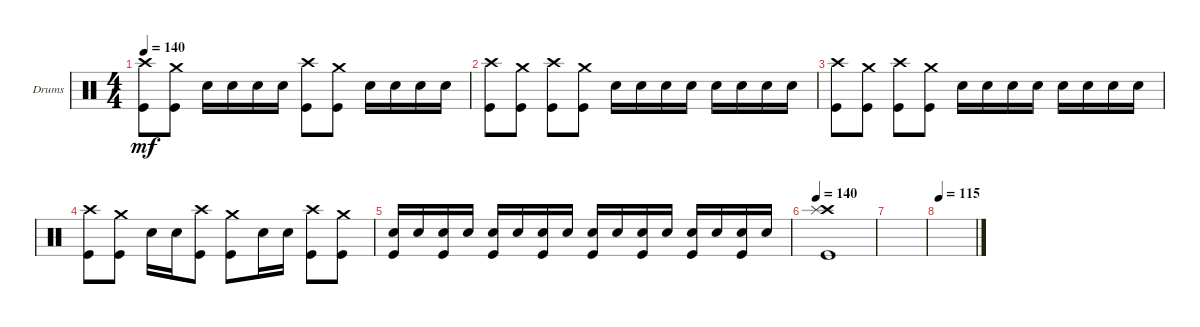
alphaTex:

\bracketExtendMode groupsimilarinstruments
\firstSystemTrackNameOrientation horizontal
\otherSystemsTrackNameOrientation horizontal
\track ("Drumkit" "Drums") {instrument percussion}
\staff {score}
\articulation defaults
\ts (4 4)
\tempo 140
\clef neutral
\ks c
("Kick (hit)" "Crash high (hit)").8{dy mf} ("Kick (hit)" "Crash medium (hit)").8 "Snare (hit) 2".16 "Snare (hit) 2".16 "Snare (hit) 2".16 "Snare (hit) 2".16 ("Kick (hit)" "Crash high (hit)").8 ("Kick (hit)" "Crash medium (hit)").8 "Snare (hit) 2".16 "Snare (hit) 2".16 "Snare (hit) 2".16 "Snare (hit) 2".16 |
("Kick (hit)" "Crash high (hit)").8 ("Kick (hit)" "Crash medium (hit)").8 ("Kick (hit)" "Crash high (hit)").8 ("Kick (hit)" "Crash medium (hit)").8 "Snare (hit) 2".16 "Snare (hit) 2".16 "Snare (hit) 2".16 "Snare (hit) 2".16 "Snare (hit) 2".16 "Snare (hit) 2".16 "Snare (hit) 2".16 "Snare (hit) 2".16 |
("Kick (hit)" "Crash high (hit)").8 ("Kick (hit)" "Crash medium (hit)").8 ("Kick (hit)" "Crash high (hit)").8 ("Kick (hit)" "Crash medium (hit)").8 "Snare (hit) 2".16 "Snare (hit) 2".16 "Snare (hit) 2".16 "Snare (hit) 2".16 "Snare (hit) 2".16 "Snare (hit) 2".16 "Snare (hit) 2".16 "Snare (hit) 2".16 |
("Kick (hit)" "Crash high (hit)").8 ("Kick (hit)" "Crash medium (hit)").8 "Snare (hit) 2".16 "Snare (hit) 2".16 ("Kick (hit)" "Crash high (hit)").8 ("Kick (hit)" "Crash medium (hit)").8 "Snare (hit) 2".16 "Snare (hit) 2".16 ("Kick (hit)" "Crash high (hit)").8 ("Kick (hit)" "Crash medium (hit)").8 |
("Snare (hit) 2" "Kick (hit)").16 "Snare (hit) 2".16 ("Snare (hit) 2" "Kick (hit)").16 "Snare (hit) 2".16 ("Snare (hit) 2" "Kick (hit)").16 "Snare (hit) 2".16 ("Snare (hit) 2" "Kick (hit)").16 "Snare (hit) 2".16 ("Snare (hit) 2" "Kick (hit)").16 "Snare (hit) 2".16 ("Snare (hit) 2" "Kick (hit)").16 "Snare (hit) 2".16 ("Snare (hit) 2" "Kick (hit)").16 "Snare (hit) 2".16 ("Snare (hit) 2" "Kick (hit)").16 "Snare (hit) 2".16 |
\tempo 140
("Kick (hit)" "Crash high (hit)" "Splash (hit)").1 |
|
\tempo 115
